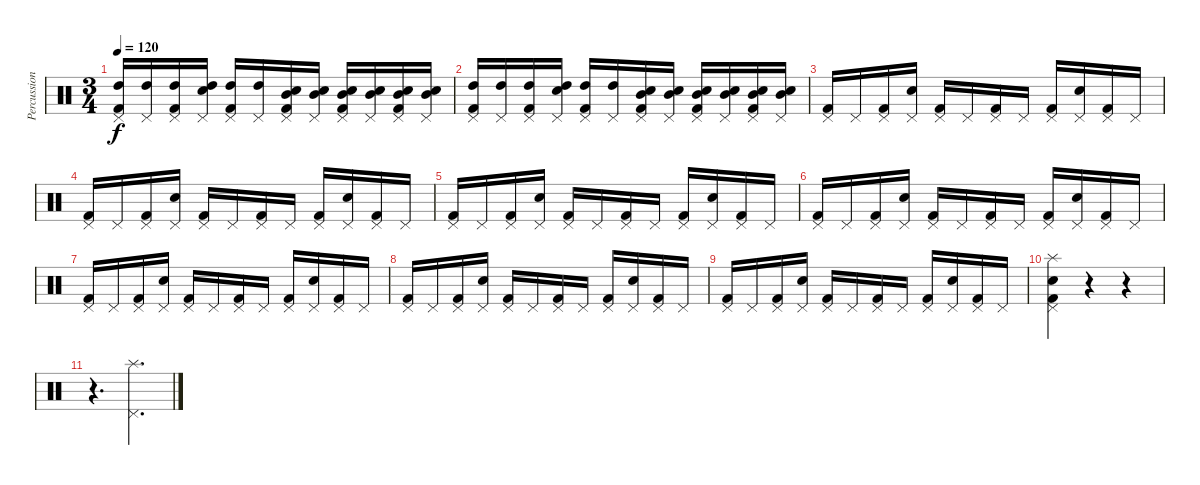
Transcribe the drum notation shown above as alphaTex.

\track ("Percussion" "Percussion") {instrument percussion}
\staff {score}
\articulation defaults
\ts (3 4)
\tempo 120
\clef neutral
\ks c
("Kick (hit) 2" "Pedal Hi-Hat (hit)" "High Tom (hit)").16{dy f} ("Pedal Hi-Hat (hit)" "High Tom (hit)").16 ("Kick (hit) 2" "Pedal Hi-Hat (hit)" "High Tom (hit)").16 ("Pedal Hi-Hat (hit)" "Electric Snare (hit)" "High Tom (hit)").16 ("Kick (hit) 2" "Pedal Hi-Hat (hit)" "High Tom (hit)").16 ("Pedal Hi-Hat (hit)" "High Tom (hit)").16 ("Kick (hit) 2" "Pedal Hi-Hat (hit)" "Electric Snare (hit)" "Mid Tom (hit)").16 ("Pedal Hi-Hat (hit)" "Electric Snare (hit)" "Mid Tom (hit)").16 ("Kick (hit) 2" "Pedal Hi-Hat (hit)" "Electric Snare (hit)" "Mid Tom (hit)").16 ("Pedal Hi-Hat (hit)" "Electric Snare (hit)" "Mid Tom (hit)").16 ("Kick (hit) 2" "Pedal Hi-Hat (hit)" "Electric Snare (hit)" "Mid Tom (hit)").16 ("Pedal Hi-Hat (hit)" "Electric Snare (hit)" "Mid Tom (hit)").16 |
("Kick (hit) 2" "Pedal Hi-Hat (hit)" "High Tom (hit)").16 ("Pedal Hi-Hat (hit)" "High Tom (hit)").16 ("Kick (hit) 2" "Pedal Hi-Hat (hit)" "High Tom (hit)").16 ("Pedal Hi-Hat (hit)" "Electric Snare (hit)" "High Tom (hit)").16 ("Kick (hit) 2" "Pedal Hi-Hat (hit)" "High Tom (hit)").16 ("Pedal Hi-Hat (hit)" "High Tom (hit)").16 ("Kick (hit) 2" "Pedal Hi-Hat (hit)" "Electric Snare (hit)" "Mid Tom (hit)").16 ("Pedal Hi-Hat (hit)" "Electric Snare (hit)" "Mid Tom (hit)").16 ("Kick (hit) 2" "Pedal Hi-Hat (hit)" "Electric Snare (hit)" "Mid Tom (hit)").16 ("Pedal Hi-Hat (hit)" "Electric Snare (hit)" "Mid Tom (hit)").16 ("Kick (hit) 2" "Pedal Hi-Hat (hit)" "Electric Snare (hit)" "Mid Tom (hit)").16 ("Pedal Hi-Hat (hit)" "Electric Snare (hit)" "Mid Tom (hit)").16 |
("Kick (hit) 2" "Pedal Hi-Hat (hit)").16 "Pedal Hi-Hat (hit)".16 ("Kick (hit) 2" "Pedal Hi-Hat (hit)").16 ("Pedal Hi-Hat (hit)" "Electric Snare (hit)").16 ("Kick (hit) 2" "Pedal Hi-Hat (hit)").16 "Pedal Hi-Hat (hit)".16 ("Kick (hit) 2" "Pedal Hi-Hat (hit)").16 "Pedal Hi-Hat (hit)".16 ("Kick (hit) 2" "Pedal Hi-Hat (hit)").16 ("Pedal Hi-Hat (hit)" "Electric Snare (hit)").16 ("Kick (hit) 2" "Pedal Hi-Hat (hit)").16 "Pedal Hi-Hat (hit)".16 |
("Kick (hit) 2" "Pedal Hi-Hat (hit)").16 "Pedal Hi-Hat (hit)".16 ("Kick (hit) 2" "Pedal Hi-Hat (hit)").16 ("Pedal Hi-Hat (hit)" "Electric Snare (hit)").16 ("Kick (hit) 2" "Pedal Hi-Hat (hit)").16 "Pedal Hi-Hat (hit)".16 ("Kick (hit) 2" "Pedal Hi-Hat (hit)").16 "Pedal Hi-Hat (hit)".16 ("Kick (hit) 2" "Pedal Hi-Hat (hit)").16 ("Pedal Hi-Hat (hit)" "Electric Snare (hit)").16 ("Kick (hit) 2" "Pedal Hi-Hat (hit)").16 "Pedal Hi-Hat (hit)".16 |
("Kick (hit) 2" "Pedal Hi-Hat (hit)").16 "Pedal Hi-Hat (hit)".16 ("Kick (hit) 2" "Pedal Hi-Hat (hit)").16 ("Pedal Hi-Hat (hit)" "Electric Snare (hit)").16 ("Kick (hit) 2" "Pedal Hi-Hat (hit)").16 "Pedal Hi-Hat (hit)".16 ("Kick (hit) 2" "Pedal Hi-Hat (hit)").16 "Pedal Hi-Hat (hit)".16 ("Kick (hit) 2" "Pedal Hi-Hat (hit)").16 ("Pedal Hi-Hat (hit)" "Electric Snare (hit)").16 ("Kick (hit) 2" "Pedal Hi-Hat (hit)").16 "Pedal Hi-Hat (hit)".16 |
("Kick (hit) 2" "Pedal Hi-Hat (hit)").16 "Pedal Hi-Hat (hit)".16 ("Kick (hit) 2" "Pedal Hi-Hat (hit)").16 ("Pedal Hi-Hat (hit)" "Electric Snare (hit)").16 ("Kick (hit) 2" "Pedal Hi-Hat (hit)").16 "Pedal Hi-Hat (hit)".16 ("Kick (hit) 2" "Pedal Hi-Hat (hit)").16 "Pedal Hi-Hat (hit)".16 ("Kick (hit) 2" "Pedal Hi-Hat (hit)").16 ("Pedal Hi-Hat (hit)" "Electric Snare (hit)").16 ("Kick (hit) 2" "Pedal Hi-Hat (hit)").16 "Pedal Hi-Hat (hit)".16 |
("Kick (hit) 2" "Pedal Hi-Hat (hit)").16 "Pedal Hi-Hat (hit)".16 ("Kick (hit) 2" "Pedal Hi-Hat (hit)").16 ("Pedal Hi-Hat (hit)" "Electric Snare (hit)").16 ("Kick (hit) 2" "Pedal Hi-Hat (hit)").16 "Pedal Hi-Hat (hit)".16 ("Kick (hit) 2" "Pedal Hi-Hat (hit)").16 "Pedal Hi-Hat (hit)".16 ("Kick (hit) 2" "Pedal Hi-Hat (hit)").16 ("Pedal Hi-Hat (hit)" "Electric Snare (hit)").16 ("Kick (hit) 2" "Pedal Hi-Hat (hit)").16 "Pedal Hi-Hat (hit)".16 |
("Kick (hit) 2" "Pedal Hi-Hat (hit)").16 "Pedal Hi-Hat (hit)".16 ("Kick (hit) 2" "Pedal Hi-Hat (hit)").16 ("Pedal Hi-Hat (hit)" "Electric Snare (hit)").16 ("Kick (hit) 2" "Pedal Hi-Hat (hit)").16 "Pedal Hi-Hat (hit)".16 ("Kick (hit) 2" "Pedal Hi-Hat (hit)").16 "Pedal Hi-Hat (hit)".16 ("Kick (hit) 2" "Pedal Hi-Hat (hit)").16 ("Pedal Hi-Hat (hit)" "Electric Snare (hit)").16 ("Kick (hit) 2" "Pedal Hi-Hat (hit)").16 "Pedal Hi-Hat (hit)".16 |
("Kick (hit) 2" "Pedal Hi-Hat (hit)").16 "Pedal Hi-Hat (hit)".16 ("Kick (hit) 2" "Pedal Hi-Hat (hit)").16 ("Pedal Hi-Hat (hit)" "Electric Snare (hit)").16 ("Kick (hit) 2" "Pedal Hi-Hat (hit)").16 "Pedal Hi-Hat (hit)".16 ("Kick (hit) 2" "Pedal Hi-Hat (hit)").16 "Pedal Hi-Hat (hit)".16 ("Kick (hit) 2" "Pedal Hi-Hat (hit)").16 ("Pedal Hi-Hat (hit)" "Electric Snare (hit)").16 ("Kick (hit) 2" "Pedal Hi-Hat (hit)").16 "Pedal Hi-Hat (hit)".16 |
("Kick (hit) 2" "Pedal Hi-Hat (hit)" "Electric Snare (hit)" "Splash (hit)").4 r.4 r.4 |
r.4{d} ("Pedal Hi-Hat (hit)" "Splash (hit)").4{d}
